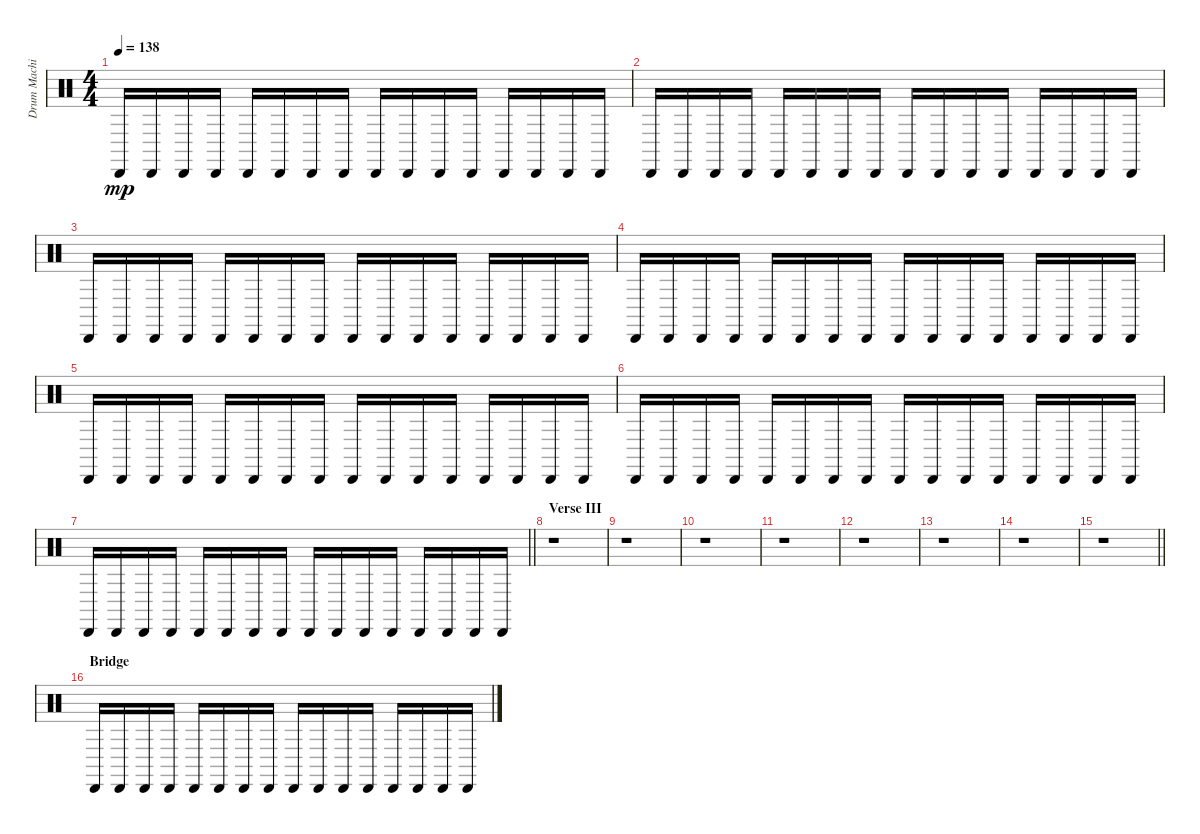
\track ("Drum Machine" "Drum Machi") {instrument percussion}
\staff {score}
\articulation defaults
\ts (4 4)
\tempo 138
\clef neutral
\ks c "Cabasa (hit)".16{dy mp} "Cabasa (hit)".16 "Cabasa (hit)".16 "Cabasa (hit)".16 "Cabasa (hit)".16 "Cabasa (hit)".16 "Cabasa (hit)".16 "Cabasa (hit)".16 "Cabasa (hit)".16 "Cabasa (hit)".16 "Cabasa (hit)".16 "Cabasa (hit)".16 "Cabasa (hit)".16 "Cabasa (hit)".16 "Cabasa (hit)".16 "Cabasa (hit)".16
|
"Cabasa (hit)".16 "Cabasa (hit)".16 "Cabasa (hit)".16 "Cabasa (hit)".16 "Cabasa (hit)".16 "Cabasa (hit)".16 "Cabasa (hit)".16 "Cabasa (hit)".16 "Cabasa (hit)".16 "Cabasa (hit)".16 "Cabasa (hit)".16 "Cabasa (hit)".16 "Cabasa (hit)".16 "Cabasa (hit)".16 "Cabasa (hit)".16 "Cabasa (hit)".16 |
"Cabasa (hit)".16 "Cabasa (hit)".16 "Cabasa (hit)".16 "Cabasa (hit)".16 "Cabasa (hit)".16 "Cabasa (hit)".16 "Cabasa (hit)".16 "Cabasa (hit)".16 "Cabasa (hit)".16 "Cabasa (hit)".16 "Cabasa (hit)".16 "Cabasa (hit)".16 "Cabasa (hit)".16 "Cabasa (hit)".16 "Cabasa (hit)".16 "Cabasa (hit)".16 |
"Cabasa (hit)".16 "Cabasa (hit)".16 "Cabasa (hit)".16 "Cabasa (hit)".16 "Cabasa (hit)".16 "Cabasa (hit)".16 "Cabasa (hit)".16 "Cabasa (hit)".16 "Cabasa (hit)".16 "Cabasa (hit)".16 "Cabasa (hit)".16 "Cabasa (hit)".16 "Cabasa (hit)".16 "Cabasa (hit)".16 "Cabasa (hit)".16 "Cabasa (hit)".16 |
"Cabasa (hit)".16 "Cabasa (hit)".16 "Cabasa (hit)".16 "Cabasa (hit)".16 "Cabasa (hit)".16 "Cabasa (hit)".16 "Cabasa (hit)".16 "Cabasa (hit)".16 "Cabasa (hit)".16 "Cabasa (hit)".16 "Cabasa (hit)".16 "Cabasa (hit)".16 "Cabasa (hit)".16 "Cabasa (hit)".16 "Cabasa (hit)".16 "Cabasa (hit)".16 |
"Cabasa (hit)".16 "Cabasa (hit)".16 "Cabasa (hit)".16 "Cabasa (hit)".16 "Cabasa (hit)".16 "Cabasa (hit)".16 "Cabasa (hit)".16 "Cabasa (hit)".16 "Cabasa (hit)".16 "Cabasa (hit)".16 "Cabasa (hit)".16 "Cabasa (hit)".16 "Cabasa (hit)".16 "Cabasa (hit)".16 "Cabasa (hit)".16 "Cabasa (hit)".16 |
\barLineRight lightlight "Cabasa (hit)".16 "Cabasa (hit)".16 "Cabasa (hit)".16 "Cabasa (hit)".16 "Cabasa (hit)".16 "Cabasa (hit)".16 "Cabasa (hit)".16 "Cabasa (hit)".16 "Cabasa (hit)".16 "Cabasa (hit)".16 "Cabasa (hit)".16 "Cabasa (hit)".16 "Cabasa (hit)".16 "Cabasa (hit)".16 "Cabasa (hit)".16 "Cabasa (hit)".16
|
\section ("" "Verse III")
r.1 |
r.1 |
r.1 |
r.1 |
r.1 |
r.1 |
r.1 |
\barLineRight lightlight
r.1 |
\section ("" "Bridge")
"Cabasa (hit)".16 "Cabasa (hit)".16 "Cabasa (hit)".16 "Cabasa (hit)".16 "Cabasa (hit)".16 "Cabasa (hit)".16 "Cabasa (hit)".16 "Cabasa (hit)".16 "Cabasa (hit)".16 "Cabasa (hit)".16 "Cabasa (hit)".16 "Cabasa (hit)".16 "Cabasa (hit)".16 "Cabasa (hit)".16 "Cabasa (hit)".16 "Cabasa (hit)".16
